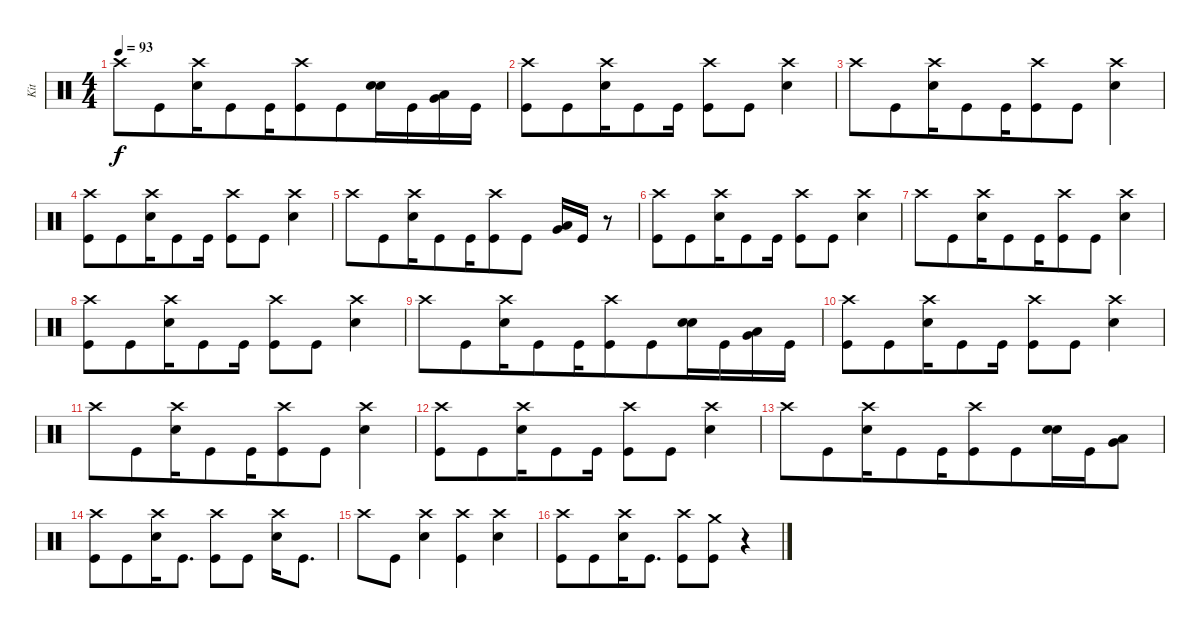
\track ("Kit" "Kit") {instrument percussion}
\staff {score}
\articulation defaults
\ts (4 4)
\tempo 93
\clef neutral
\ks aminor "Crash high (hit)".8{dy f} "Kick (hit)".8{beam merge}
("Crash high (hit)" "Electric Snare (hit)").16{beam merge} "Kick (hit)".8{beam merge} "Kick (hit)".16{beam merge} ("Crash high (hit)" "Kick (hit)").8{beam merge} "Kick (hit)".8{beam merge} ("Electric Snare (hit)" "Electric Snare (hit)").16 "Kick (hit)".16 ("Low Tom (hit)" "Very Low Tom (hit)").16{beam merge} "Kick (hit)".16 |
("Crash high (hit)" "Kick (hit)").8{beam merge} "Kick (hit)".8{beam merge} ("Crash high (hit)" "Electric Snare (hit)").16 "Kick (hit)".8 "Kick (hit)".16 ("Crash high (hit)" "Kick (hit)").8 "Kick (hit)".8 ("Crash high (hit)" "Electric Snare (hit)").4 |
"Crash high (hit)".8 "Kick (hit)".8{beam merge} ("Crash high (hit)" "Electric Snare (hit)").16{beam merge} "Kick (hit)".8{beam merge} "Kick (hit)".16{beam merge} ("Crash high (hit)" "Kick (hit)").8{beam merge} "Kick (hit)".8{beam merge} ("Crash high (hit)" "Electric Snare (hit)").4 |
("Crash high (hit)" "Kick (hit)").8{beam merge} "Kick (hit)".8{beam merge} ("Crash high (hit)" "Electric Snare (hit)").16 "Kick (hit)".8 "Kick (hit)".16 ("Crash high (hit)" "Kick (hit)").8 "Kick (hit)".8 ("Crash high (hit)" "Electric Snare (hit)").4 |
"Crash high (hit)".8 "Kick (hit)".8{beam merge} ("Crash high (hit)" "Electric Snare (hit)").16{beam merge} "Kick (hit)".8{beam merge} "Kick (hit)".16{beam merge} ("Crash high (hit)" "Kick (hit)").8{beam merge} "Kick (hit)".8 ("Low Tom (hit)" "Very Low Tom (hit)").16{beam merge} "Kick (hit)".16{beam merge} r.8 |
("Crash high (hit)" "Kick (hit)").8{beam merge} "Kick (hit)".8{beam merge} ("Crash high (hit)" "Electric Snare (hit)").16 "Kick (hit)".8 "Kick (hit)".16 ("Crash high (hit)" "Kick (hit)").8 "Kick (hit)".8 ("Crash high (hit)" "Electric Snare (hit)").4 |
"Crash high (hit)".8 "Kick (hit)".8{beam merge} ("Crash high (hit)" "Electric Snare (hit)").16{beam merge} "Kick (hit)".8{beam merge} "Kick (hit)".16{beam merge} ("Crash high (hit)" "Kick (hit)").8{beam merge} "Kick (hit)".8{beam merge} ("Crash high (hit)" "Electric Snare (hit)").4 |
("Crash high (hit)" "Kick (hit)").8{beam merge} "Kick (hit)".8{beam merge} ("Crash high (hit)" "Electric Snare (hit)").16 "Kick (hit)".8 "Kick (hit)".16 ("Crash high (hit)" "Kick (hit)").8 "Kick (hit)".8 ("Crash high (hit)" "Electric Snare (hit)").4 |
"Crash high (hit)".8 "Kick (hit)".8{beam merge} ("Crash high (hit)" "Electric Snare (hit)").16{beam merge} "Kick (hit)".8{beam merge} "Kick (hit)".16{beam merge} ("Crash high (hit)" "Kick (hit)").8{beam merge} "Kick (hit)".8{beam merge} ("Electric Snare (hit)" "Electric Snare (hit)").16 "Kick (hit)".16 ("Low Tom (hit)" "Very Low Tom (hit)").16{beam merge} "Kick (hit)".16 |
("Crash high (hit)" "Kick (hit)").8{beam merge} "Kick (hit)".8{beam merge} ("Crash high (hit)" "Electric Snare (hit)").16 "Kick (hit)".8 "Kick (hit)".16 ("Crash high (hit)" "Kick (hit)").8 "Kick (hit)".8 ("Crash high (hit)" "Electric Snare (hit)").4 |
"Crash high (hit)".8 "Kick (hit)".8{beam merge} ("Crash high (hit)" "Electric Snare (hit)").16{beam merge} "Kick (hit)".8{beam merge} "Kick (hit)".16{beam merge} ("Crash high (hit)" "Kick (hit)").8{beam merge} "Kick (hit)".8{beam merge} ("Crash high (hit)" "Electric Snare (hit)").4 |
("Crash high (hit)" "Kick (hit)").8{beam merge} "Kick (hit)".8{beam merge} ("Crash high (hit)" "Electric Snare (hit)").16 "Kick (hit)".8 "Kick (hit)".16 ("Crash high (hit)" "Kick (hit)").8 "Kick (hit)".8 ("Crash high (hit)" "Electric Snare (hit)").4 |
"Crash high (hit)".8 "Kick (hit)".8{beam merge} ("Crash high (hit)" "Electric Snare (hit)").16{beam merge} "Kick (hit)".8{beam merge} "Kick (hit)".16{beam merge} ("Crash high (hit)" "Kick (hit)").8{beam merge} "Kick (hit)".8{beam merge} ("Electric Snare (hit)" "Electric Snare (hit)").16 "Kick (hit)".16 ("Low Tom (hit)" "Very Low Tom (hit)").8 |
("Crash high (hit)" "Kick (hit)").8{beam merge} "Kick (hit)".8{beam merge} ("Crash high (hit)" "Electric Snare (hit)").16 "Kick (hit)".8{d} ("Crash high (hit)" "Kick (hit)").8 "Kick (hit)".8 ("Crash high (hit)" "Electric Snare (hit)").16 "Kick (hit)".8{d} |
"Crash high (hit)".8{beam merge} "Kick (hit)".8 ("Crash high (hit)" "Electric Snare (hit)").4{beam merge} ("Crash high (hit)" "Kick (hit)").4 ("Crash high (hit)" "Electric Snare (hit)").4 |
("Crash high (hit)" "Kick (hit)").8{beam merge} "Kick (hit)".8{beam merge} ("Crash high (hit)" "Electric Snare (hit)").16 "Kick (hit)".8{d} ("Crash high (hit)" "Kick (hit)").8 ("Crash medium (hit)" "Kick (hit)").8 r.4{volume 5}
